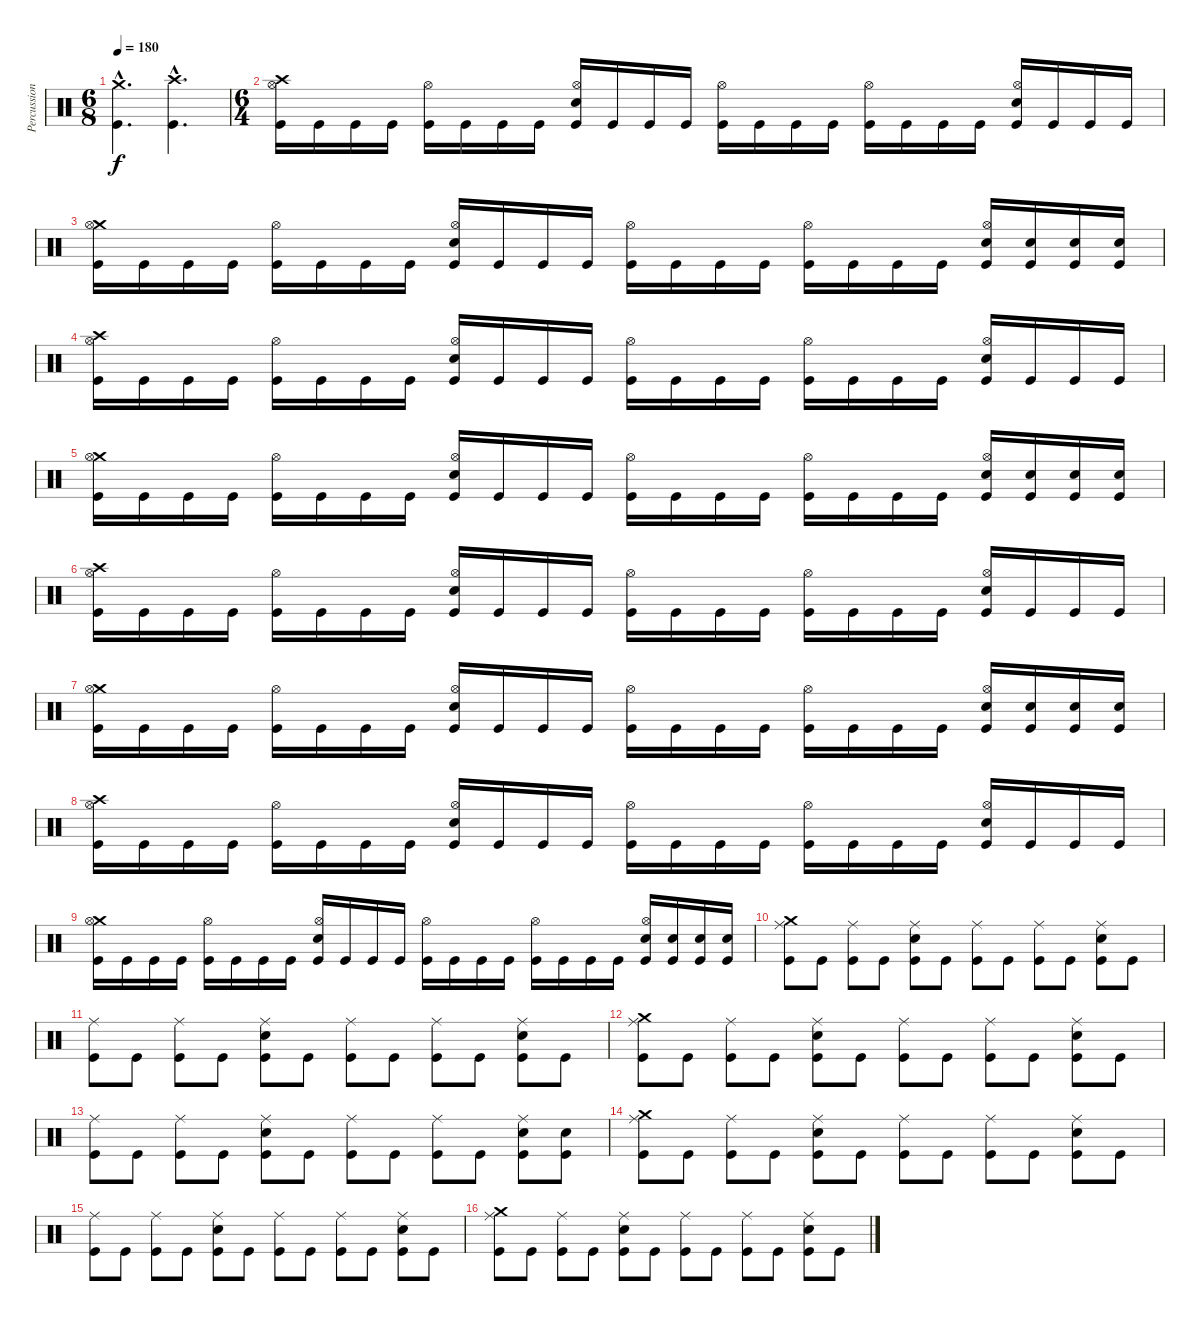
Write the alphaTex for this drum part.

\track ("Percussion" "Percussion") {instrument percussion}
\staff {score}
\articulation defaults
\ts (6 8)
\tempo 180
\clef neutral
\ks c
("Crash medium (hit)"{hac} "Kick (hit)"{hac}).4{d dy f} ("Crash high (hit)"{hac} "Kick (hit)"{hac}).4{d} |
\ts (6 4)
("Crash high (hit)" "Hi-Hat (open)" "Kick (hit)").16 "Kick (hit)".16 "Kick (hit)".16 "Kick (hit)".16 ("Hi-Hat (open)" "Kick (hit)").16 "Kick (hit)".16 "Kick (hit)".16 "Kick (hit)".16 ("Electric Snare (hit)" "Hi-Hat (open)" "Kick (hit)").16 "Kick (hit)".16 "Kick (hit)".16 "Kick (hit)".16 ("Hi-Hat (open)" "Kick (hit)").16 "Kick (hit)".16 "Kick (hit)".16 "Kick (hit)".16 ("Hi-Hat (open)" "Kick (hit)").16 "Kick (hit)".16 "Kick (hit)".16 "Kick (hit)".16 ("Electric Snare (hit)" "Hi-Hat (open)" "Kick (hit)").16 "Kick (hit)".16 "Kick (hit)".16 "Kick (hit)".16 |
("Crash medium (hit)" "Hi-Hat (open)" "Kick (hit)").16 "Kick (hit)".16 "Kick (hit)".16 "Kick (hit)".16 ("Hi-Hat (open)" "Kick (hit)").16 "Kick (hit)".16 "Kick (hit)".16 "Kick (hit)".16 ("Electric Snare (hit)" "Hi-Hat (open)" "Kick (hit)").16 "Kick (hit)".16 "Kick (hit)".16 "Kick (hit)".16 ("Hi-Hat (open)" "Kick (hit)").16 "Kick (hit)".16 "Kick (hit)".16 "Kick (hit)".16 ("Hi-Hat (open)" "Kick (hit)").16 "Kick (hit)".16 "Kick (hit)".16 "Kick (hit)".16 ("Electric Snare (hit)" "Hi-Hat (open)" "Kick (hit)").16 ("Electric Snare (hit)" "Kick (hit)").16 ("Electric Snare (hit)" "Kick (hit)").16 ("Electric Snare (hit)" "Kick (hit)").16 |
("Crash high (hit)" "Hi-Hat (open)" "Kick (hit)").16 "Kick (hit)".16 "Kick (hit)".16 "Kick (hit)".16 ("Hi-Hat (open)" "Kick (hit)").16 "Kick (hit)".16 "Kick (hit)".16 "Kick (hit)".16 ("Electric Snare (hit)" "Hi-Hat (open)" "Kick (hit)").16 "Kick (hit)".16 "Kick (hit)".16 "Kick (hit)".16 ("Hi-Hat (open)" "Kick (hit)").16 "Kick (hit)".16 "Kick (hit)".16 "Kick (hit)".16 ("Hi-Hat (open)" "Kick (hit)").16 "Kick (hit)".16 "Kick (hit)".16 "Kick (hit)".16 ("Electric Snare (hit)" "Hi-Hat (open)" "Kick (hit)").16 "Kick (hit)".16 "Kick (hit)".16 "Kick (hit)".16 |
("Crash medium (hit)" "Hi-Hat (open)" "Kick (hit)").16 "Kick (hit)".16 "Kick (hit)".16 "Kick (hit)".16 ("Hi-Hat (open)" "Kick (hit)").16 "Kick (hit)".16 "Kick (hit)".16 "Kick (hit)".16 ("Electric Snare (hit)" "Hi-Hat (open)" "Kick (hit)").16 "Kick (hit)".16 "Kick (hit)".16 "Kick (hit)".16 ("Hi-Hat (open)" "Kick (hit)").16 "Kick (hit)".16 "Kick (hit)".16 "Kick (hit)".16 ("Hi-Hat (open)" "Kick (hit)").16 "Kick (hit)".16 "Kick (hit)".16 "Kick (hit)".16 ("Electric Snare (hit)" "Hi-Hat (open)" "Kick (hit)").16 ("Electric Snare (hit)" "Kick (hit)").16 ("Electric Snare (hit)" "Kick (hit)").16 ("Electric Snare (hit)" "Kick (hit)").16 |
("Crash high (hit)" "Hi-Hat (open)" "Kick (hit)").16 "Kick (hit)".16 "Kick (hit)".16 "Kick (hit)".16 ("Hi-Hat (open)" "Kick (hit)").16 "Kick (hit)".16 "Kick (hit)".16 "Kick (hit)".16 ("Electric Snare (hit)" "Hi-Hat (open)" "Kick (hit)").16 "Kick (hit)".16 "Kick (hit)".16 "Kick (hit)".16 ("Hi-Hat (open)" "Kick (hit)").16 "Kick (hit)".16 "Kick (hit)".16 "Kick (hit)".16 ("Hi-Hat (open)" "Kick (hit)").16 "Kick (hit)".16 "Kick (hit)".16 "Kick (hit)".16 ("Electric Snare (hit)" "Hi-Hat (open)" "Kick (hit)").16 "Kick (hit)".16 "Kick (hit)".16 "Kick (hit)".16 |
("Crash medium (hit)" "Hi-Hat (open)" "Kick (hit)").16 "Kick (hit)".16 "Kick (hit)".16 "Kick (hit)".16 ("Hi-Hat (open)" "Kick (hit)").16 "Kick (hit)".16 "Kick (hit)".16 "Kick (hit)".16 ("Electric Snare (hit)" "Hi-Hat (open)" "Kick (hit)").16 "Kick (hit)".16 "Kick (hit)".16 "Kick (hit)".16 ("Hi-Hat (open)" "Kick (hit)").16 "Kick (hit)".16 "Kick (hit)".16 "Kick (hit)".16 ("Hi-Hat (open)" "Kick (hit)").16 "Kick (hit)".16 "Kick (hit)".16 "Kick (hit)".16 ("Electric Snare (hit)" "Hi-Hat (open)" "Kick (hit)").16 ("Electric Snare (hit)" "Kick (hit)").16 ("Electric Snare (hit)" "Kick (hit)").16 ("Electric Snare (hit)" "Kick (hit)").16 |
("Crash high (hit)" "Hi-Hat (open)" "Kick (hit)").16 "Kick (hit)".16 "Kick (hit)".16 "Kick (hit)".16 ("Hi-Hat (open)" "Kick (hit)").16 "Kick (hit)".16 "Kick (hit)".16 "Kick (hit)".16 ("Electric Snare (hit)" "Hi-Hat (open)" "Kick (hit)").16 "Kick (hit)".16 "Kick (hit)".16 "Kick (hit)".16 ("Hi-Hat (open)" "Kick (hit)").16 "Kick (hit)".16 "Kick (hit)".16 "Kick (hit)".16 ("Hi-Hat (open)" "Kick (hit)").16 "Kick (hit)".16 "Kick (hit)".16 "Kick (hit)".16 ("Electric Snare (hit)" "Hi-Hat (open)" "Kick (hit)").16 "Kick (hit)".16 "Kick (hit)".16 "Kick (hit)".16 |
("Crash medium (hit)" "Hi-Hat (open)" "Kick (hit)").16 "Kick (hit)".16 "Kick (hit)".16 "Kick (hit)".16 ("Hi-Hat (open)" "Kick (hit)").16 "Kick (hit)".16 "Kick (hit)".16 "Kick (hit)".16 ("Electric Snare (hit)" "Hi-Hat (open)" "Kick (hit)").16 "Kick (hit)".16 "Kick (hit)".16 "Kick (hit)".16 ("Hi-Hat (open)" "Kick (hit)").16 "Kick (hit)".16 "Kick (hit)".16 "Kick (hit)".16 ("Hi-Hat (open)" "Kick (hit)").16 "Kick (hit)".16 "Kick (hit)".16 "Kick (hit)".16 ("Electric Snare (hit)" "Hi-Hat (open)" "Kick (hit)").16 ("Electric Snare (hit)" "Kick (hit)").16 ("Electric Snare (hit)" "Kick (hit)").16 ("Electric Snare (hit)" "Kick (hit)").16 |
("Crash medium (hit)" "Ride (middle)" "Kick (hit)").8 "Kick (hit)".8 ("Ride (middle)" "Kick (hit)").8 "Kick (hit)".8 ("Electric Snare (hit)" "Ride (middle)" "Kick (hit)").8 "Kick (hit)".8 ("Ride (middle)" "Kick (hit)").8 "Kick (hit)".8 ("Ride (middle)" "Kick (hit)").8 "Kick (hit)".8 ("Electric Snare (hit)" "Ride (middle)" "Kick (hit)").8 "Kick (hit)".8 |
("Ride (middle)" "Kick (hit)").8 "Kick (hit)".8 ("Ride (middle)" "Kick (hit)").8 "Kick (hit)".8 ("Electric Snare (hit)" "Ride (middle)" "Kick (hit)").8 "Kick (hit)".8 ("Ride (middle)" "Kick (hit)").8 "Kick (hit)".8 ("Ride (middle)" "Kick (hit)").8 "Kick (hit)".8 ("Electric Snare (hit)" "Ride (middle)" "Kick (hit)").8 "Kick (hit)".8 |
("Crash medium (hit)" "Ride (middle)" "Kick (hit)").8 "Kick (hit)".8 ("Ride (middle)" "Kick (hit)").8 "Kick (hit)".8 ("Electric Snare (hit)" "Ride (middle)" "Kick (hit)").8 "Kick (hit)".8 ("Ride (middle)" "Kick (hit)").8 "Kick (hit)".8 ("Ride (middle)" "Kick (hit)").8 "Kick (hit)".8 ("Electric Snare (hit)" "Ride (middle)" "Kick (hit)").8 "Kick (hit)".8 |
("Ride (middle)" "Kick (hit)").8 "Kick (hit)".8 ("Ride (middle)" "Kick (hit)").8 "Kick (hit)".8 ("Electric Snare (hit)" "Ride (middle)" "Kick (hit)").8 "Kick (hit)".8 ("Ride (middle)" "Kick (hit)").8 "Kick (hit)".8 ("Ride (middle)" "Kick (hit)").8 "Kick (hit)".8 ("Electric Snare (hit)" "Ride (middle)" "Kick (hit)").8 ("Electric Snare (hit)" "Kick (hit)").8 |
("Crash medium (hit)" "Ride (middle)" "Kick (hit)").8 "Kick (hit)".8 ("Ride (middle)" "Kick (hit)").8 "Kick (hit)".8 ("Electric Snare (hit)" "Ride (middle)" "Kick (hit)").8 "Kick (hit)".8 ("Ride (middle)" "Kick (hit)").8 "Kick (hit)".8 ("Ride (middle)" "Kick (hit)").8 "Kick (hit)".8 ("Electric Snare (hit)" "Ride (middle)" "Kick (hit)").8 "Kick (hit)".8 |
("Ride (middle)" "Kick (hit)").8 "Kick (hit)".8 ("Ride (middle)" "Kick (hit)").8 "Kick (hit)".8 ("Electric Snare (hit)" "Ride (middle)" "Kick (hit)").8 "Kick (hit)".8 ("Ride (middle)" "Kick (hit)").8 "Kick (hit)".8 ("Ride (middle)" "Kick (hit)").8 "Kick (hit)".8 ("Electric Snare (hit)" "Ride (middle)" "Kick (hit)").8 "Kick (hit)".8 |
("Crash medium (hit)" "Ride (middle)" "Kick (hit)").8 "Kick (hit)".8 ("Ride (middle)" "Kick (hit)").8 "Kick (hit)".8 ("Electric Snare (hit)" "Ride (middle)" "Kick (hit)").8 "Kick (hit)".8 ("Ride (middle)" "Kick (hit)").8 "Kick (hit)".8 ("Ride (middle)" "Kick (hit)").8 "Kick (hit)".8 ("Electric Snare (hit)" "Ride (middle)" "Kick (hit)").8 "Kick (hit)".8
